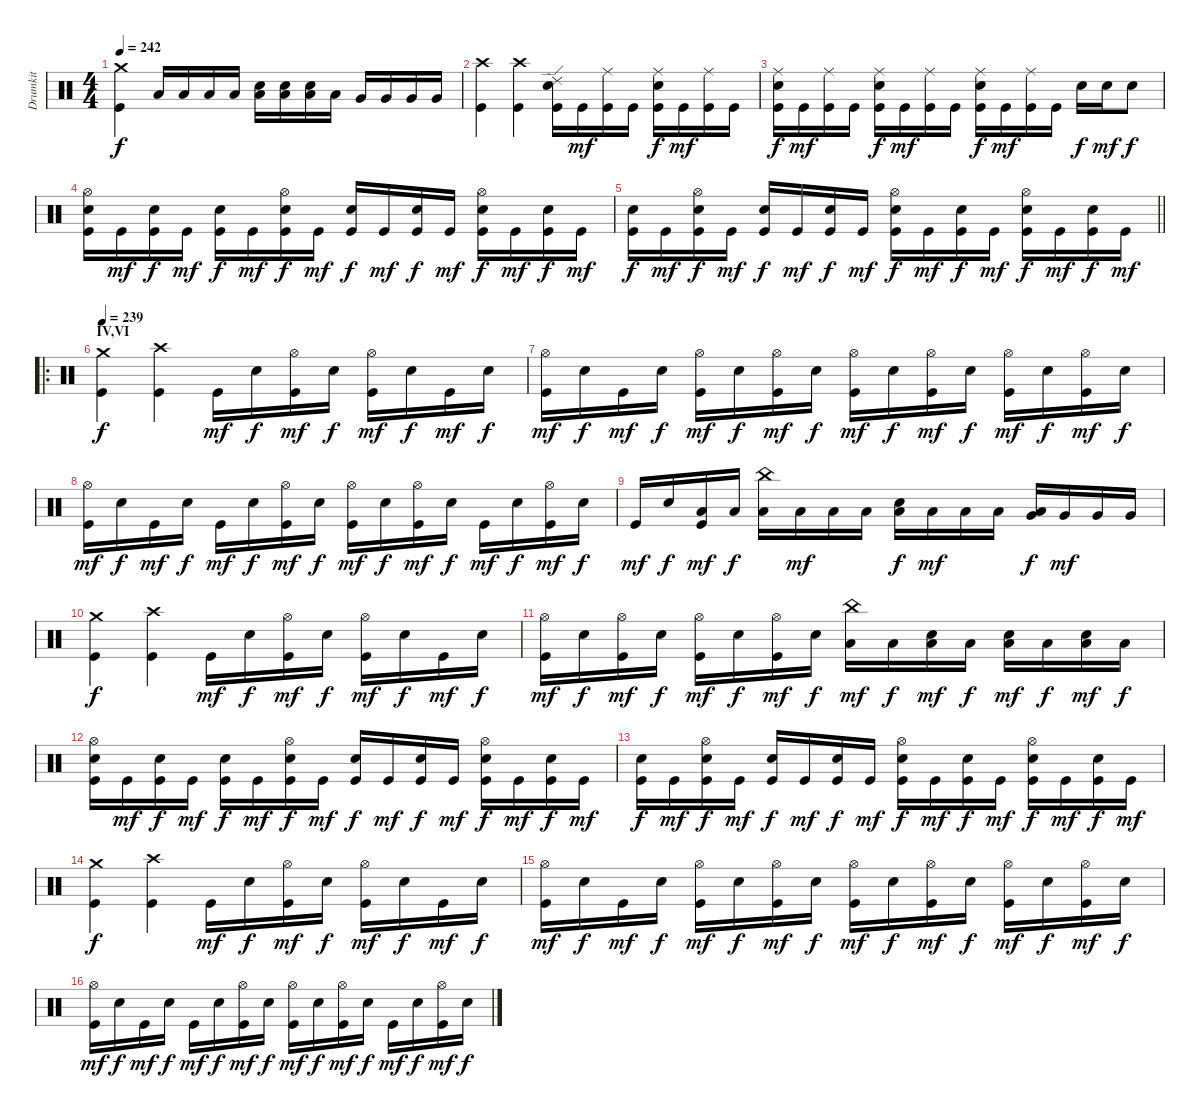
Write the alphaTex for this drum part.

\track ("Drumkit" "Drumkit") {instrument percussion}
\staff {score}
\articulation defaults
\ts (4 4)
\tempo 242
\clef neutral
\ks c
("Kick (hit)" "Crash medium (hit)").4{dy f} "Low Tom (hit)".16 "Low Tom (hit)".16 "Low Tom (hit)".16 "Low Tom (hit)".16 ("Low Tom (hit)" "Snare (hit) 2").16 ("Snare (hit) 2" "Low Tom (hit)").16 ("Low Tom (hit)" "Snare (hit) 2").16 "Low Tom (hit)".16 "Very Low Tom (hit)".16 "Very Low Tom (hit)".16 "Very Low Tom (hit)".16 "Very Low Tom (hit)".16 |
("Kick (hit)" "Crash high (hit)").4 ("Kick (hit)" "Crash high (hit)").4 ("Kick (hit)" "Snare (hit) 2" "Ride (edge) 2").16 "Kick (hit)".16{dy mf} ("Kick (hit)" "Ride (middle)").16 "Kick (hit)".16 ("Kick (hit)" "Snare (hit) 2" "Ride (middle)").16{dy f} "Kick (hit)".16{dy mf} ("Kick (hit)" "Ride (middle)").16 "Kick (hit)".16 |
("Kick (hit)" "Snare (hit) 2" "Ride (middle)").16{dy f} "Kick (hit)".16{dy mf} ("Kick (hit)" "Ride (middle)").16 "Kick (hit)".16 ("Kick (hit)" "Snare (hit) 2" "Ride (middle)").16{dy f} "Kick (hit)".16{dy mf} ("Kick (hit)" "Ride (middle)").16 "Kick (hit)".16 ("Kick (hit)" "Snare (hit) 2" "Ride (middle)").16{dy f} "Kick (hit)".16{dy mf} ("Kick (hit)" "Ride (middle)").16 "Kick (hit)".16 "Snare (hit) 2".16{dy f} "Snare (hit) 2".16{dy mf} "Snare (hit) 2".8{dy f} |
("Snare (hit) 2" "Kick (hit)" "Hi-Hat (open)").16 "Kick (hit)".16{dy mf} ("Snare (hit) 2" "Kick (hit)").16{dy f} "Kick (hit)".16{dy mf} ("Snare (hit) 2" "Kick (hit)").16{dy f} "Kick (hit)".16{dy mf} ("Snare (hit) 2" "Kick (hit)" "Hi-Hat (open)").16{dy f} "Kick (hit)".16{dy mf} ("Snare (hit) 2" "Kick (hit)").16{dy f} "Kick (hit)".16{dy mf} ("Snare (hit) 2" "Kick (hit)").16{dy f} "Kick (hit)".16{dy mf} ("Snare (hit) 2" "Kick (hit)" "Hi-Hat (open)").16{dy f} "Kick (hit)".16{dy mf} ("Snare (hit) 2" "Kick (hit)").16{dy f} "Kick (hit)".16{dy mf} |
\barLineRight lightlight
("Snare (hit) 2" "Kick (hit)").16{dy f} "Kick (hit)".16{dy mf} ("Snare (hit) 2" "Kick (hit)" "Hi-Hat (open)").16{dy f} "Kick (hit)".16{dy mf} ("Snare (hit) 2" "Kick (hit)").16{dy f} "Kick (hit)".16{dy mf} ("Snare (hit) 2" "Kick (hit)").16{dy f} "Kick (hit)".16{dy mf} ("Snare (hit) 2" "Kick (hit)" "Hi-Hat (open)").16{dy f} "Kick (hit)".16{dy mf} ("Snare (hit) 2" "Kick (hit)").16{dy f} "Kick (hit)".16{dy mf} ("Snare (hit) 2" "Kick (hit)" "Hi-Hat (open)").16{dy f} "Kick (hit)".16{dy mf} ("Snare (hit) 2" "Kick (hit)").16{dy f} "Kick (hit)".16{dy mf} |
\ro
\section ("" "IV,VI")
\tempo 239
("Kick (hit)" "Crash medium (hit)").4{dy f} ("Kick (hit)" "Crash high (hit)").4 "Kick (hit)".16{dy mf} "Snare (hit) 2".16{dy f} ("Kick (hit)" "Hi-Hat (open)").16{dy mf} "Snare (hit) 2".16{dy f} ("Kick (hit)" "Hi-Hat (open)").16{dy mf} "Snare (hit) 2".16{dy f} "Kick (hit)".16{dy mf} "Snare (hit) 2".16{dy f} |
("Kick (hit)" "Hi-Hat (open)").16{dy mf} "Snare (hit) 2".16{dy f} "Kick (hit)".16{dy mf} "Snare (hit) 2".16{dy f} ("Kick (hit)" "Hi-Hat (open)").16{dy mf} "Snare (hit) 2".16{dy f} ("Kick (hit)" "Hi-Hat (open)").16{dy mf} "Snare (hit) 2".16{dy f} ("Kick (hit)" "Hi-Hat (open)").16{dy mf} "Snare (hit) 2".16{dy f} ("Kick (hit)" "Hi-Hat (open)").16{dy mf} "Snare (hit) 2".16{dy f} ("Kick (hit)" "Hi-Hat (open)").16{dy mf} "Snare (hit) 2".16{dy f} ("Kick (hit)" "Hi-Hat (open)").16{dy mf} "Snare (hit) 2".16{dy f} |
("Kick (hit)" "Hi-Hat (open)").16{dy mf} "Snare (hit) 2".16{dy f} "Kick (hit)".16{dy mf} "Snare (hit) 2".16{dy f} "Kick (hit)".16{dy mf} "Snare (hit) 2".16{dy f} ("Kick (hit)" "Hi-Hat (open)").16{dy mf} "Snare (hit) 2".16{dy f} ("Kick (hit)" "Hi-Hat (open)").16{dy mf} "Snare (hit) 2".16{dy f} ("Kick (hit)" "Hi-Hat (open)").16{dy mf} "Snare (hit) 2".16{dy f} "Kick (hit)".16{dy mf} "Snare (hit) 2".16{dy f} ("Kick (hit)" "Hi-Hat (open)").16{dy mf} "Snare (hit) 2".16{dy f} |
"Kick (hit)".16{dy mf} "Snare (hit) 2".16{dy f} ("Kick (hit)" "Low Tom (hit)").16{dy mf} "Low Tom (hit)".16{dy f} ("Low Tom (hit)" "China (hit)").16 "Low Tom (hit)".16{dy mf} "Low Tom (hit)".16 "Low Tom (hit)".16 ("Low Tom (hit)" "Snare (hit) 2").16{dy f} "Low Tom (hit)".16{dy mf} "Low Tom (hit)".16 "Low Tom (hit)".16 ("Very Low Tom (hit)" "Low Floor Tom (hit)").16{dy f} "Very Low Tom (hit)".16{dy mf} "Very Low Tom (hit)".16 "Very Low Tom (hit)".16 |
("Kick (hit)" "Crash medium (hit)").4{dy f} ("Kick (hit)" "Crash high (hit)").4 "Kick (hit)".16{dy mf} "Snare (hit) 2".16{dy f} ("Kick (hit)" "Hi-Hat (open)").16{dy mf} "Snare (hit) 2".16{dy f} ("Kick (hit)" "Hi-Hat (open)").16{dy mf} "Snare (hit) 2".16{dy f} "Kick (hit)".16{dy mf} "Snare (hit) 2".16{dy f} |
("Kick (hit)" "Hi-Hat (open)").16{dy mf} "Snare (hit) 2".16{dy f} ("Kick (hit)" "Hi-Hat (open)").16{dy mf} "Snare (hit) 2".16{dy f} ("Kick (hit)" "Hi-Hat (open)").16{dy mf} "Snare (hit) 2".16{dy f} ("Kick (hit)" "Hi-Hat (open)").16{dy mf} "Snare (hit) 2".16{dy f} ("Low Tom (hit)" "China (hit)").16{dy mf} "Low Tom (hit)".16{dy f} ("Low Tom (hit)" "Snare (hit) 2").16{dy mf} "Low Tom (hit)".16{dy f} ("Low Tom (hit)" "Snare (hit) 2").16{dy mf} "Low Tom (hit)".16{dy f} ("Low Tom (hit)" "Snare (hit) 2").16{dy mf} "Low Tom (hit)".16{dy f} |
("Snare (hit) 2" "Kick (hit)" "Hi-Hat (open)").16 "Kick (hit)".16{dy mf} ("Snare (hit) 2" "Kick (hit)").16{dy f} "Kick (hit)".16{dy mf} ("Snare (hit) 2" "Kick (hit)").16{dy f} "Kick (hit)".16{dy mf} ("Snare (hit) 2" "Kick (hit)" "Hi-Hat (open)").16{dy f} "Kick (hit)".16{dy mf} ("Snare (hit) 2" "Kick (hit)").16{dy f} "Kick (hit)".16{dy mf} ("Snare (hit) 2" "Kick (hit)").16{dy f} "Kick (hit)".16{dy mf} ("Snare (hit) 2" "Kick (hit)" "Hi-Hat (open)").16{dy f} "Kick (hit)".16{dy mf} ("Snare (hit) 2" "Kick (hit)").16{dy f} "Kick (hit)".16{dy mf} |
("Snare (hit) 2" "Kick (hit)").16{dy f} "Kick (hit)".16{dy mf} ("Snare (hit) 2" "Kick (hit)" "Hi-Hat (open)").16{dy f} "Kick (hit)".16{dy mf} ("Snare (hit) 2" "Kick (hit)").16{dy f} "Kick (hit)".16{dy mf} ("Snare (hit) 2" "Kick (hit)").16{dy f} "Kick (hit)".16{dy mf} ("Snare (hit) 2" "Kick (hit)" "Hi-Hat (open)").16{dy f} "Kick (hit)".16{dy mf} ("Snare (hit) 2" "Kick (hit)").16{dy f} "Kick (hit)".16{dy mf} ("Snare (hit) 2" "Kick (hit)" "Hi-Hat (open)").16{dy f} "Kick (hit)".16{dy mf} ("Snare (hit) 2" "Kick (hit)").16{dy f} "Kick (hit)".16{dy mf} |
("Kick (hit)" "Crash medium (hit)").4{dy f} ("Kick (hit)" "Crash high (hit)").4 "Kick (hit)".16{dy mf} "Snare (hit) 2".16{dy f} ("Kick (hit)" "Hi-Hat (open)").16{dy mf} "Snare (hit) 2".16{dy f} ("Kick (hit)" "Hi-Hat (open)").16{dy mf} "Snare (hit) 2".16{dy f} "Kick (hit)".16{dy mf} "Snare (hit) 2".16{dy f} |
("Kick (hit)" "Hi-Hat (open)").16{dy mf} "Snare (hit) 2".16{dy f} "Kick (hit)".16{dy mf} "Snare (hit) 2".16{dy f} ("Kick (hit)" "Hi-Hat (open)").16{dy mf} "Snare (hit) 2".16{dy f} ("Kick (hit)" "Hi-Hat (open)").16{dy mf} "Snare (hit) 2".16{dy f} ("Kick (hit)" "Hi-Hat (open)").16{dy mf} "Snare (hit) 2".16{dy f} ("Kick (hit)" "Hi-Hat (open)").16{dy mf} "Snare (hit) 2".16{dy f} ("Kick (hit)" "Hi-Hat (open)").16{dy mf} "Snare (hit) 2".16{dy f} ("Kick (hit)" "Hi-Hat (open)").16{dy mf} "Snare (hit) 2".16{dy f} |
("Kick (hit)" "Hi-Hat (open)").16{dy mf} "Snare (hit) 2".16{dy f} "Kick (hit)".16{dy mf} "Snare (hit) 2".16{dy f} "Kick (hit)".16{dy mf} "Snare (hit) 2".16{dy f} ("Kick (hit)" "Hi-Hat (open)").16{dy mf} "Snare (hit) 2".16{dy f} ("Kick (hit)" "Hi-Hat (open)").16{dy mf} "Snare (hit) 2".16{dy f} ("Kick (hit)" "Hi-Hat (open)").16{dy mf} "Snare (hit) 2".16{dy f} "Kick (hit)".16{dy mf} "Snare (hit) 2".16{dy f} ("Kick (hit)" "Hi-Hat (open)").16{dy mf} "Snare (hit) 2".16{dy f}
